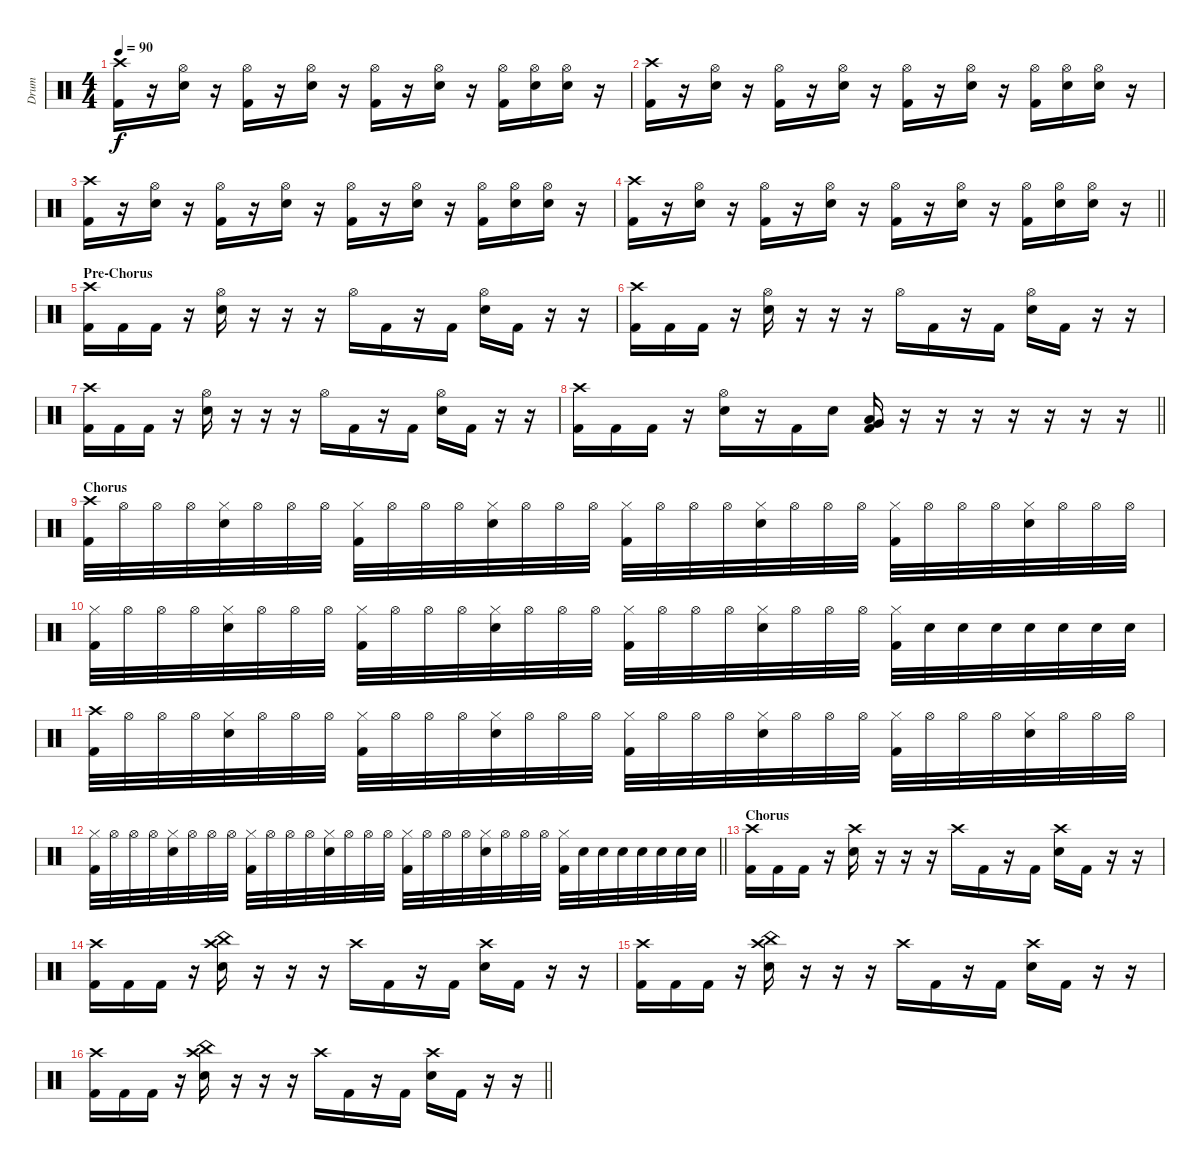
\track ("Drum" "Drum") {instrument percussion}
\staff {score}
\articulation defaults
\ts (4 4)
\tempo 90
\clef neutral
\ks c
("Crash high (hit)" "Kick (hit) 2").16{dy f} r.16 ("Hi-Hat (open)" "Electric Snare (hit)").16 r.16 ("Hi-Hat (open)" "Kick (hit) 2").16 r.16 ("Hi-Hat (open)" "Electric Snare (hit)").16 r.16 ("Hi-Hat (open)" "Kick (hit) 2").16 r.16 ("Hi-Hat (open)" "Electric Snare (hit)").16 r.16 ("Hi-Hat (open)" "Kick (hit) 2").16 ("Hi-Hat (open)" "Electric Snare (hit)").16 ("Hi-Hat (open)" "Electric Snare (hit)").16 r.16 |
("Crash high (hit)" "Kick (hit) 2").16 r.16 ("Hi-Hat (open)" "Electric Snare (hit)").16 r.16 ("Hi-Hat (open)" "Kick (hit) 2").16 r.16 ("Hi-Hat (open)" "Electric Snare (hit)").16 r.16 ("Hi-Hat (open)" "Kick (hit) 2").16 r.16 ("Hi-Hat (open)" "Electric Snare (hit)").16 r.16 ("Hi-Hat (open)" "Kick (hit) 2").16 ("Hi-Hat (open)" "Electric Snare (hit)").16 ("Hi-Hat (open)" "Electric Snare (hit)").16 r.16 |
("Crash high (hit)" "Kick (hit) 2").16 r.16 ("Hi-Hat (open)" "Electric Snare (hit)").16 r.16 ("Hi-Hat (open)" "Kick (hit) 2").16 r.16 ("Hi-Hat (open)" "Electric Snare (hit)").16 r.16 ("Hi-Hat (open)" "Kick (hit) 2").16 r.16 ("Hi-Hat (open)" "Electric Snare (hit)").16 r.16 ("Hi-Hat (open)" "Kick (hit) 2").16 ("Hi-Hat (open)" "Electric Snare (hit)").16 ("Hi-Hat (open)" "Electric Snare (hit)").16 r.16 |
\barLineRight lightlight
("Crash high (hit)" "Kick (hit) 2").16 r.16 ("Hi-Hat (open)" "Electric Snare (hit)").16 r.16 ("Hi-Hat (open)" "Kick (hit) 2").16 r.16 ("Hi-Hat (open)" "Electric Snare (hit)").16 r.16 ("Hi-Hat (open)" "Kick (hit) 2").16 r.16 ("Hi-Hat (open)" "Electric Snare (hit)").16 r.16 ("Hi-Hat (open)" "Kick (hit) 2").16 ("Hi-Hat (open)" "Electric Snare (hit)").16 ("Hi-Hat (open)" "Electric Snare (hit)").16 r.16 |
\section ("" "Pre-Chorus")
("Crash high (hit)" "Kick (hit) 2").16 "Kick (hit) 2".16 "Kick (hit) 2".16 r.16 ("Hi-Hat (open)" "Electric Snare (hit)").16 r.16 r.16 r.16 "Hi-Hat (open)".16 "Kick (hit) 2".16 r.16 "Kick (hit) 2".16 ("Hi-Hat (open)" "Electric Snare (hit)").16 "Kick (hit) 2".16 r.16 r.16 |
("Crash high (hit)" "Kick (hit) 2").16 "Kick (hit) 2".16 "Kick (hit) 2".16 r.16 ("Hi-Hat (open)" "Electric Snare (hit)").16 r.16 r.16 r.16 "Hi-Hat (open)".16 "Kick (hit) 2".16 r.16 "Kick (hit) 2".16 ("Hi-Hat (open)" "Electric Snare (hit)").16 "Kick (hit) 2".16 r.16 r.16 |
("Crash high (hit)" "Kick (hit) 2").16 "Kick (hit) 2".16 "Kick (hit) 2".16 r.16 ("Hi-Hat (open)" "Electric Snare (hit)").16 r.16 r.16 r.16 "Hi-Hat (open)".16 "Kick (hit) 2".16 r.16 "Kick (hit) 2".16 ("Hi-Hat (open)" "Electric Snare (hit)").16 "Kick (hit) 2".16 r.16 r.16 |
\barLineRight lightlight
("Crash high (hit)" "Kick (hit) 2").16 "Kick (hit) 2".16 "Kick (hit) 2".16 r.16 ("Hi-Hat (open)" "Electric Snare (hit)").16 r.16 "Kick (hit) 2".16 "Electric Snare (hit)".16 ("Low Tom (hit)" "Very Low Tom (hit)" "Kick (hit) 2").16 r.16 r.16 r.16 r.16 r.16 r.16 r.16 |
\section ("" "Chorus")
("Crash high (hit)" "Kick (hit) 2").32 "Hi-Hat (open)".32 "Hi-Hat (open)".32 "Hi-Hat (open)".32 ("Hi-Hat (closed)" "Electric Snare (hit)").32 "Hi-Hat (open)".32 "Hi-Hat (open)".32 "Hi-Hat (open)".32 ("Hi-Hat (closed)" "Kick (hit) 2").32 "Hi-Hat (open)".32 "Hi-Hat (open)".32 "Hi-Hat (open)".32 ("Hi-Hat (closed)" "Electric Snare (hit)").32 "Hi-Hat (open)".32 "Hi-Hat (open)".32 "Hi-Hat (open)".32 ("Hi-Hat (closed)" "Kick (hit) 2").32 "Hi-Hat (open)".32 "Hi-Hat (open)".32 "Hi-Hat (open)".32 ("Hi-Hat (closed)" "Electric Snare (hit)").32 "Hi-Hat (open)".32 "Hi-Hat (open)".32 "Hi-Hat (open)".32 ("Hi-Hat (closed)" "Kick (hit) 2").32 "Hi-Hat (open)".32 "Hi-Hat (open)".32 "Hi-Hat (open)".32 ("Hi-Hat (closed)" "Electric Snare (hit)").32 "Hi-Hat (open)".32 "Hi-Hat (open)".32 "Hi-Hat (open)".32 |
("Hi-Hat (closed)" "Kick (hit) 2").32 "Hi-Hat (open)".32 "Hi-Hat (open)".32 "Hi-Hat (open)".32 ("Hi-Hat (closed)" "Electric Snare (hit)").32 "Hi-Hat (open)".32 "Hi-Hat (open)".32 "Hi-Hat (open)".32 ("Hi-Hat (closed)" "Kick (hit) 2").32 "Hi-Hat (open)".32 "Hi-Hat (open)".32 "Hi-Hat (open)".32 ("Hi-Hat (closed)" "Electric Snare (hit)").32 "Hi-Hat (open)".32 "Hi-Hat (open)".32 "Hi-Hat (open)".32 ("Hi-Hat (closed)" "Kick (hit) 2").32 "Hi-Hat (open)".32 "Hi-Hat (open)".32 "Hi-Hat (open)".32 ("Hi-Hat (closed)" "Electric Snare (hit)").32 "Hi-Hat (open)".32 "Hi-Hat (open)".32 "Hi-Hat (open)".32 ("Hi-Hat (closed)" "Kick (hit) 2").32 "Electric Snare (hit)".32 "Electric Snare (hit)".32 "Electric Snare (hit)".32 "Electric Snare (hit)".32 "Electric Snare (hit)".32 "Electric Snare (hit)".32 "Electric Snare (hit)".32 |
("Crash high (hit)" "Kick (hit) 2").32 "Hi-Hat (open)".32 "Hi-Hat (open)".32 "Hi-Hat (open)".32 ("Hi-Hat (closed)" "Electric Snare (hit)").32 "Hi-Hat (open)".32 "Hi-Hat (open)".32 "Hi-Hat (open)".32 ("Hi-Hat (closed)" "Kick (hit) 2").32 "Hi-Hat (open)".32 "Hi-Hat (open)".32 "Hi-Hat (open)".32 ("Hi-Hat (closed)" "Electric Snare (hit)").32 "Hi-Hat (open)".32 "Hi-Hat (open)".32 "Hi-Hat (open)".32 ("Hi-Hat (closed)" "Kick (hit) 2").32 "Hi-Hat (open)".32 "Hi-Hat (open)".32 "Hi-Hat (open)".32 ("Hi-Hat (closed)" "Electric Snare (hit)").32 "Hi-Hat (open)".32 "Hi-Hat (open)".32 "Hi-Hat (open)".32 ("Hi-Hat (closed)" "Kick (hit) 2").32 "Hi-Hat (open)".32 "Hi-Hat (open)".32 "Hi-Hat (open)".32 ("Hi-Hat (closed)" "Electric Snare (hit)").32 "Hi-Hat (open)".32 "Hi-Hat (open)".32 "Hi-Hat (open)".32 |
\barLineRight lightlight
("Hi-Hat (closed)" "Kick (hit) 2").32 "Hi-Hat (open)".32 "Hi-Hat (open)".32 "Hi-Hat (open)".32 ("Hi-Hat (closed)" "Electric Snare (hit)").32 "Hi-Hat (open)".32 "Hi-Hat (open)".32 "Hi-Hat (open)".32 ("Hi-Hat (closed)" "Kick (hit) 2").32 "Hi-Hat (open)".32 "Hi-Hat (open)".32 "Hi-Hat (open)".32 ("Hi-Hat (closed)" "Electric Snare (hit)").32 "Hi-Hat (open)".32 "Hi-Hat (open)".32 "Hi-Hat (open)".32 ("Hi-Hat (closed)" "Kick (hit) 2").32 "Hi-Hat (open)".32 "Hi-Hat (open)".32 "Hi-Hat (open)".32 ("Hi-Hat (closed)" "Electric Snare (hit)").32 "Hi-Hat (open)".32 "Hi-Hat (open)".32 "Hi-Hat (open)".32 ("Hi-Hat (closed)" "Kick (hit) 2").32 "Electric Snare (hit)".32 "Electric Snare (hit)".32 "Electric Snare (hit)".32 "Electric Snare (hit)".32 "Electric Snare (hit)".32 "Electric Snare (hit)".32 "Electric Snare (hit)".32 |
\section ("" "Chorus")
("Crash high (hit)" "Kick (hit) 2").16 "Kick (hit) 2".16 "Kick (hit) 2".16 r.16 ("Crash high (hit)" "Electric Snare (hit)").16 r.16 r.16 r.16 "Crash high (hit)".16 "Kick (hit) 2".16 r.16 "Kick (hit) 2".16 ("Crash high (hit)" "Electric Snare (hit)").16 "Kick (hit) 2".16 r.16 r.16 |
("Crash high (hit)" "Kick (hit) 2").16 "Kick (hit) 2".16 "Kick (hit) 2".16 r.16 ("China (hit)" "Crash high (hit)" "Electric Snare (hit)").16 r.16 r.16 r.16 "Crash high (hit)".16 "Kick (hit) 2".16 r.16 "Kick (hit) 2".16 ("Crash high (hit)" "Electric Snare (hit)").16 "Kick (hit) 2".16 r.16 r.16 |
("Crash high (hit)" "Kick (hit) 2").16 "Kick (hit) 2".16 "Kick (hit) 2".16 r.16 ("China (hit)" "Crash high (hit)" "Electric Snare (hit)").16 r.16 r.16 r.16 "Crash high (hit)".16 "Kick (hit) 2".16 r.16 "Kick (hit) 2".16 ("Crash high (hit)" "Electric Snare (hit)").16 "Kick (hit) 2".16 r.16 r.16 |
\barLineRight lightlight
("Crash high (hit)" "Kick (hit) 2").16 "Kick (hit) 2".16 "Kick (hit) 2".16 r.16 ("China (hit)" "Crash high (hit)" "Electric Snare (hit)").16 r.16 r.16 r.16 "Crash high (hit)".16 "Kick (hit) 2".16 r.16 "Kick (hit) 2".16 ("Crash high (hit)" "Electric Snare (hit)").16 "Kick (hit) 2".16 r.16 r.16
